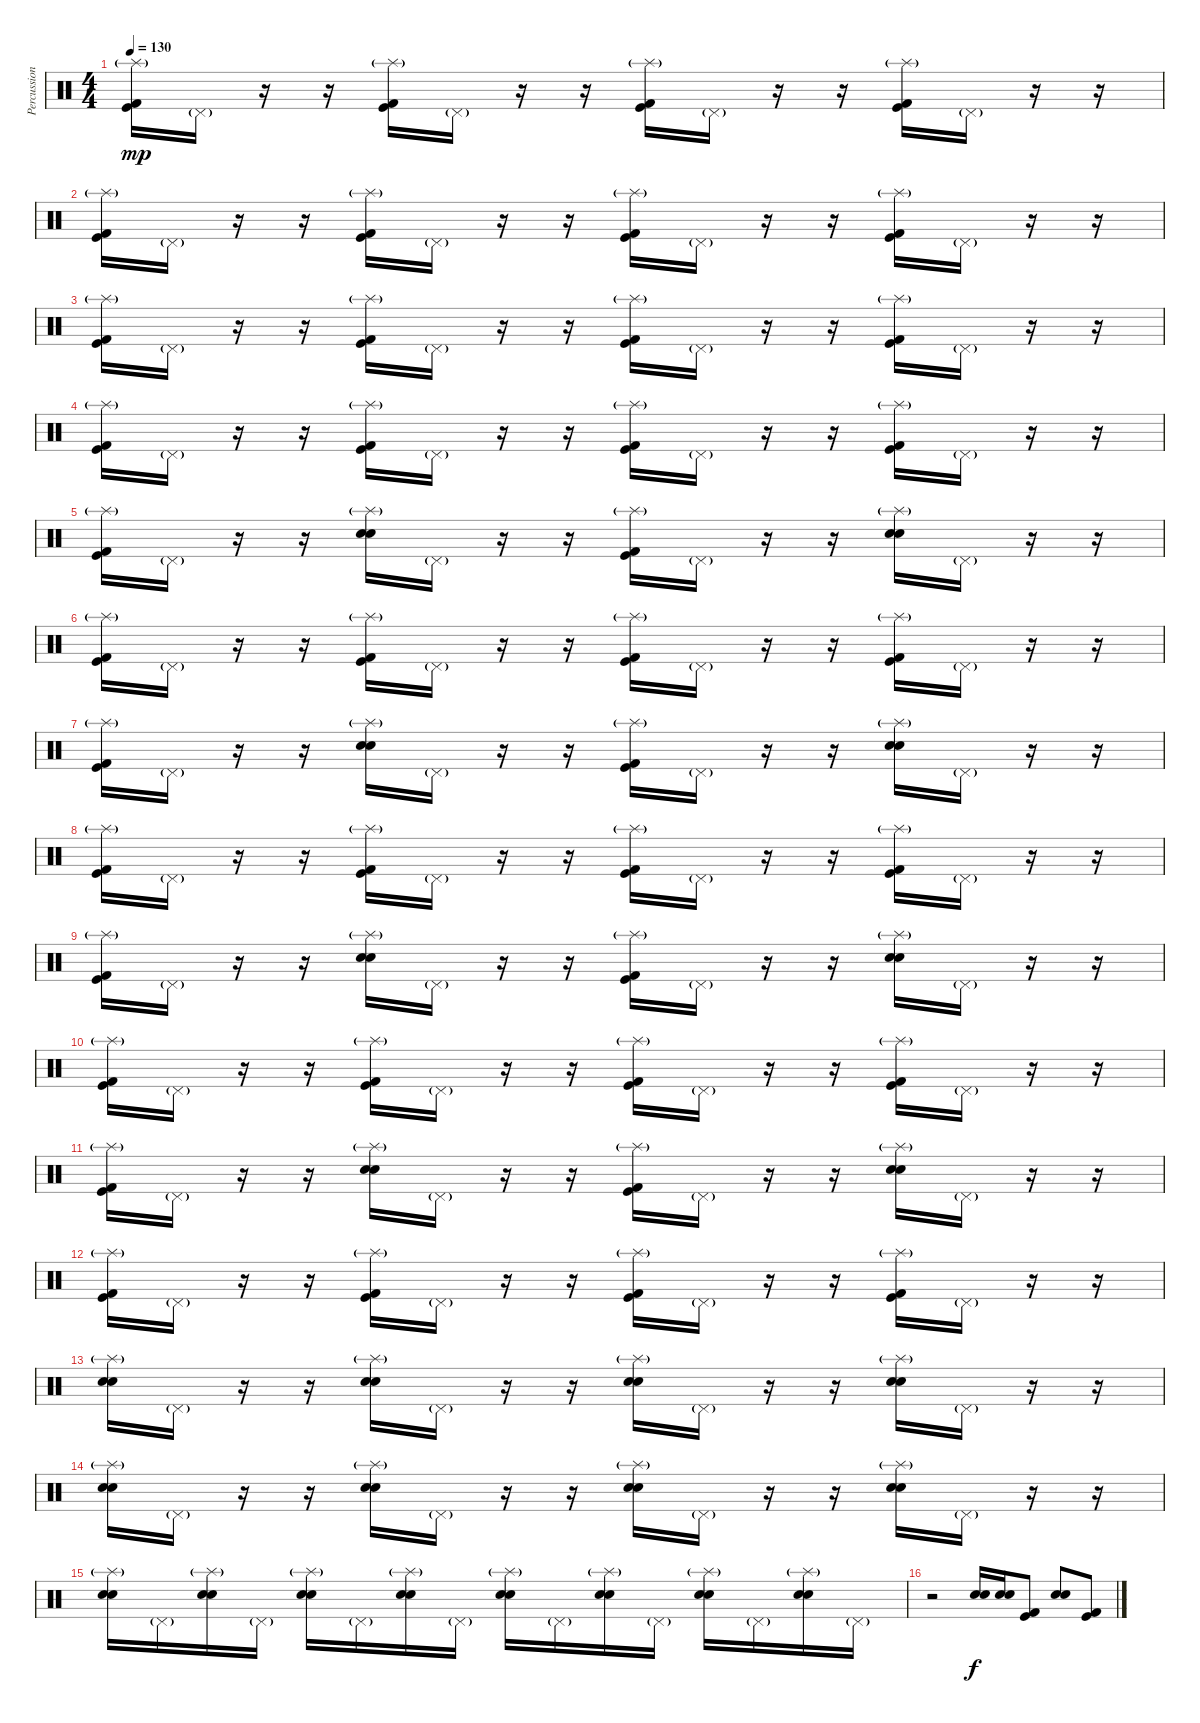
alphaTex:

\track ("Percussion" "Percussion") {instrument percussion}
\staff {score}
\articulation defaults
\ts (4 4)
\tempo 130
\clef neutral
\ks c
("Splash (hit)"{g} "Kick (hit)" "Kick (hit) 2").16{dy mp} "Pedal Hi-Hat (hit)"{g}.16 r.16 r.16 ("Splash (hit)"{g} "Kick (hit)" "Kick (hit) 2").16 "Pedal Hi-Hat (hit)"{g}.16 r.16 r.16 ("Splash (hit)"{g} "Kick (hit)" "Kick (hit) 2").16 "Pedal Hi-Hat (hit)"{g}.16 r.16 r.16 ("Splash (hit)"{g} "Kick (hit)" "Kick (hit) 2").16 "Pedal Hi-Hat (hit)"{g}.16 r.16 r.16 |
("Splash (hit)"{g} "Kick (hit)" "Kick (hit) 2").16 "Pedal Hi-Hat (hit)"{g}.16 r.16 r.16 ("Splash (hit)"{g} "Kick (hit)" "Kick (hit) 2").16 "Pedal Hi-Hat (hit)"{g}.16 r.16 r.16 ("Splash (hit)"{g} "Kick (hit)" "Kick (hit) 2").16 "Pedal Hi-Hat (hit)"{g}.16 r.16 r.16 ("Splash (hit)"{g} "Kick (hit)" "Kick (hit) 2").16 "Pedal Hi-Hat (hit)"{g}.16 r.16 r.16 |
("Splash (hit)"{g} "Kick (hit)" "Kick (hit) 2").16 "Pedal Hi-Hat (hit)"{g}.16 r.16 r.16 ("Splash (hit)"{g} "Kick (hit)" "Kick (hit) 2").16 "Pedal Hi-Hat (hit)"{g}.16 r.16 r.16 ("Splash (hit)"{g} "Kick (hit)" "Kick (hit) 2").16 "Pedal Hi-Hat (hit)"{g}.16 r.16 r.16 ("Splash (hit)"{g} "Kick (hit)" "Kick (hit) 2").16 "Pedal Hi-Hat (hit)"{g}.16 r.16 r.16 |
("Splash (hit)"{g} "Kick (hit)" "Kick (hit) 2").16 "Pedal Hi-Hat (hit)"{g}.16 r.16 r.16 ("Splash (hit)"{g} "Kick (hit)" "Kick (hit) 2").16 "Pedal Hi-Hat (hit)"{g}.16 r.16 r.16 ("Splash (hit)"{g} "Kick (hit)" "Kick (hit) 2").16 "Pedal Hi-Hat (hit)"{g}.16 r.16 r.16 ("Splash (hit)"{g} "Kick (hit)" "Kick (hit) 2").16 "Pedal Hi-Hat (hit)"{g}.16 r.16 r.16 |
("Splash (hit)"{g} "Kick (hit)" "Kick (hit) 2").16 "Pedal Hi-Hat (hit)"{g}.16 r.16 r.16 ("Splash (hit)"{g} "Snare (hit) 2" "Electric Snare (hit)").16 "Pedal Hi-Hat (hit)"{g}.16 r.16 r.16 ("Splash (hit)"{g} "Kick (hit)" "Kick (hit) 2").16 "Pedal Hi-Hat (hit)"{g}.16 r.16 r.16 ("Splash (hit)"{g} "Electric Snare (hit)" "Snare (hit) 2").16 "Pedal Hi-Hat (hit)"{g}.16 r.16 r.16 |
("Splash (hit)"{g} "Kick (hit)" "Kick (hit) 2").16 "Pedal Hi-Hat (hit)"{g}.16 r.16 r.16 ("Splash (hit)"{g} "Kick (hit)" "Kick (hit) 2").16 "Pedal Hi-Hat (hit)"{g}.16 r.16 r.16 ("Splash (hit)"{g} "Kick (hit)" "Kick (hit) 2").16 "Pedal Hi-Hat (hit)"{g}.16 r.16 r.16 ("Splash (hit)"{g} "Kick (hit)" "Kick (hit) 2").16 "Pedal Hi-Hat (hit)"{g}.16 r.16 r.16 |
("Splash (hit)"{g} "Kick (hit)" "Kick (hit) 2").16 "Pedal Hi-Hat (hit)"{g}.16 r.16 r.16 ("Splash (hit)"{g} "Snare (hit) 2" "Electric Snare (hit)").16 "Pedal Hi-Hat (hit)"{g}.16 r.16 r.16 ("Splash (hit)"{g} "Kick (hit)" "Kick (hit) 2").16 "Pedal Hi-Hat (hit)"{g}.16 r.16 r.16 ("Splash (hit)"{g} "Electric Snare (hit)" "Snare (hit) 2").16 "Pedal Hi-Hat (hit)"{g}.16 r.16 r.16 |
("Splash (hit)"{g} "Kick (hit)" "Kick (hit) 2").16 "Pedal Hi-Hat (hit)"{g}.16 r.16 r.16 ("Splash (hit)"{g} "Kick (hit)" "Kick (hit) 2").16 "Pedal Hi-Hat (hit)"{g}.16 r.16 r.16 ("Splash (hit)"{g} "Kick (hit)" "Kick (hit) 2").16 "Pedal Hi-Hat (hit)"{g}.16 r.16 r.16 ("Splash (hit)"{g} "Kick (hit)" "Kick (hit) 2").16 "Pedal Hi-Hat (hit)"{g}.16 r.16 r.16 |
("Splash (hit)"{g} "Kick (hit)" "Kick (hit) 2").16 "Pedal Hi-Hat (hit)"{g}.16 r.16 r.16 ("Splash (hit)"{g} "Snare (hit) 2" "Electric Snare (hit)").16 "Pedal Hi-Hat (hit)"{g}.16 r.16 r.16 ("Splash (hit)"{g} "Kick (hit)" "Kick (hit) 2").16 "Pedal Hi-Hat (hit)"{g}.16 r.16 r.16 ("Splash (hit)"{g} "Electric Snare (hit)" "Snare (hit) 2").16 "Pedal Hi-Hat (hit)"{g}.16 r.16 r.16 |
("Splash (hit)"{g} "Kick (hit)" "Kick (hit) 2").16 "Pedal Hi-Hat (hit)"{g}.16 r.16 r.16 ("Splash (hit)"{g} "Kick (hit)" "Kick (hit) 2").16 "Pedal Hi-Hat (hit)"{g}.16 r.16 r.16 ("Splash (hit)"{g} "Kick (hit)" "Kick (hit) 2").16 "Pedal Hi-Hat (hit)"{g}.16 r.16 r.16 ("Splash (hit)"{g} "Kick (hit)" "Kick (hit) 2").16 "Pedal Hi-Hat (hit)"{g}.16 r.16 r.16 |
("Splash (hit)"{g} "Kick (hit)" "Kick (hit) 2").16 "Pedal Hi-Hat (hit)"{g}.16 r.16 r.16 ("Splash (hit)"{g} "Snare (hit) 2" "Electric Snare (hit)").16 "Pedal Hi-Hat (hit)"{g}.16 r.16 r.16 ("Splash (hit)"{g} "Kick (hit)" "Kick (hit) 2").16 "Pedal Hi-Hat (hit)"{g}.16 r.16 r.16 ("Splash (hit)"{g} "Electric Snare (hit)" "Snare (hit) 2").16 "Pedal Hi-Hat (hit)"{g}.16 r.16 r.16 |
("Splash (hit)"{g} "Kick (hit)" "Kick (hit) 2").16 "Pedal Hi-Hat (hit)"{g}.16 r.16 r.16 ("Splash (hit)"{g} "Kick (hit)" "Kick (hit) 2").16 "Pedal Hi-Hat (hit)"{g}.16 r.16 r.16 ("Splash (hit)"{g} "Kick (hit)" "Kick (hit) 2").16 "Pedal Hi-Hat (hit)"{g}.16 r.16 r.16 ("Splash (hit)"{g} "Kick (hit)" "Kick (hit) 2").16 "Pedal Hi-Hat (hit)"{g}.16 r.16 r.16 |
("Splash (hit)"{g} "Snare (hit) 2" "Electric Snare (hit)").16 "Pedal Hi-Hat (hit)"{g}.16 r.16 r.16 ("Splash (hit)"{g} "Snare (hit) 2" "Electric Snare (hit)").16 "Pedal Hi-Hat (hit)"{g}.16 r.16 r.16 ("Splash (hit)"{g} "Snare (hit) 2" "Electric Snare (hit)").16 "Pedal Hi-Hat (hit)"{g}.16 r.16 r.16 ("Splash (hit)"{g} "Snare (hit) 2" "Electric Snare (hit)").16 "Pedal Hi-Hat (hit)"{g}.16 r.16 r.16 |
("Splash (hit)"{g} "Snare (hit) 2" "Electric Snare (hit)").16 "Pedal Hi-Hat (hit)"{g}.16 r.16 r.16 ("Splash (hit)"{g} "Snare (hit) 2" "Electric Snare (hit)").16 "Pedal Hi-Hat (hit)"{g}.16 r.16 r.16 ("Splash (hit)"{g} "Snare (hit) 2" "Electric Snare (hit)").16 "Pedal Hi-Hat (hit)"{g}.16 r.16 r.16 ("Splash (hit)"{g} "Snare (hit) 2" "Electric Snare (hit)").16 "Pedal Hi-Hat (hit)"{g}.16 r.16 r.16 |
("Splash (hit)"{g} "Snare (hit) 2" "Electric Snare (hit)").16 "Pedal Hi-Hat (hit)"{g}.16 ("Splash (hit)"{g} "Snare (hit) 2" "Electric Snare (hit)").16 "Pedal Hi-Hat (hit)"{g}.16 ("Splash (hit)"{g} "Snare (hit) 2" "Electric Snare (hit)").16 "Pedal Hi-Hat (hit)"{g}.16 ("Splash (hit)"{g} "Snare (hit) 2" "Electric Snare (hit)").16 "Pedal Hi-Hat (hit)"{g}.16 ("Splash (hit)"{g} "Snare (hit) 2" "Electric Snare (hit)").16 "Pedal Hi-Hat (hit)"{g}.16 ("Splash (hit)"{g} "Snare (hit) 2" "Electric Snare (hit)").16 "Pedal Hi-Hat (hit)"{g}.16 ("Splash (hit)"{g} "Snare (hit) 2" "Electric Snare (hit)").16 "Pedal Hi-Hat (hit)"{g}.16 ("Splash (hit)"{g} "Snare (hit) 2" "Electric Snare (hit)").16 "Pedal Hi-Hat (hit)"{g}.16 |
r.2 ("Electric Snare (hit)" "Snare (hit) 2").16{dy f} ("Electric Snare (hit)" "Snare (hit) 2").16 ("Kick (hit)" "Kick (hit) 2").8 ("Electric Snare (hit)" "Snare (hit) 2").8 ("Kick (hit)" "Kick (hit) 2").8
